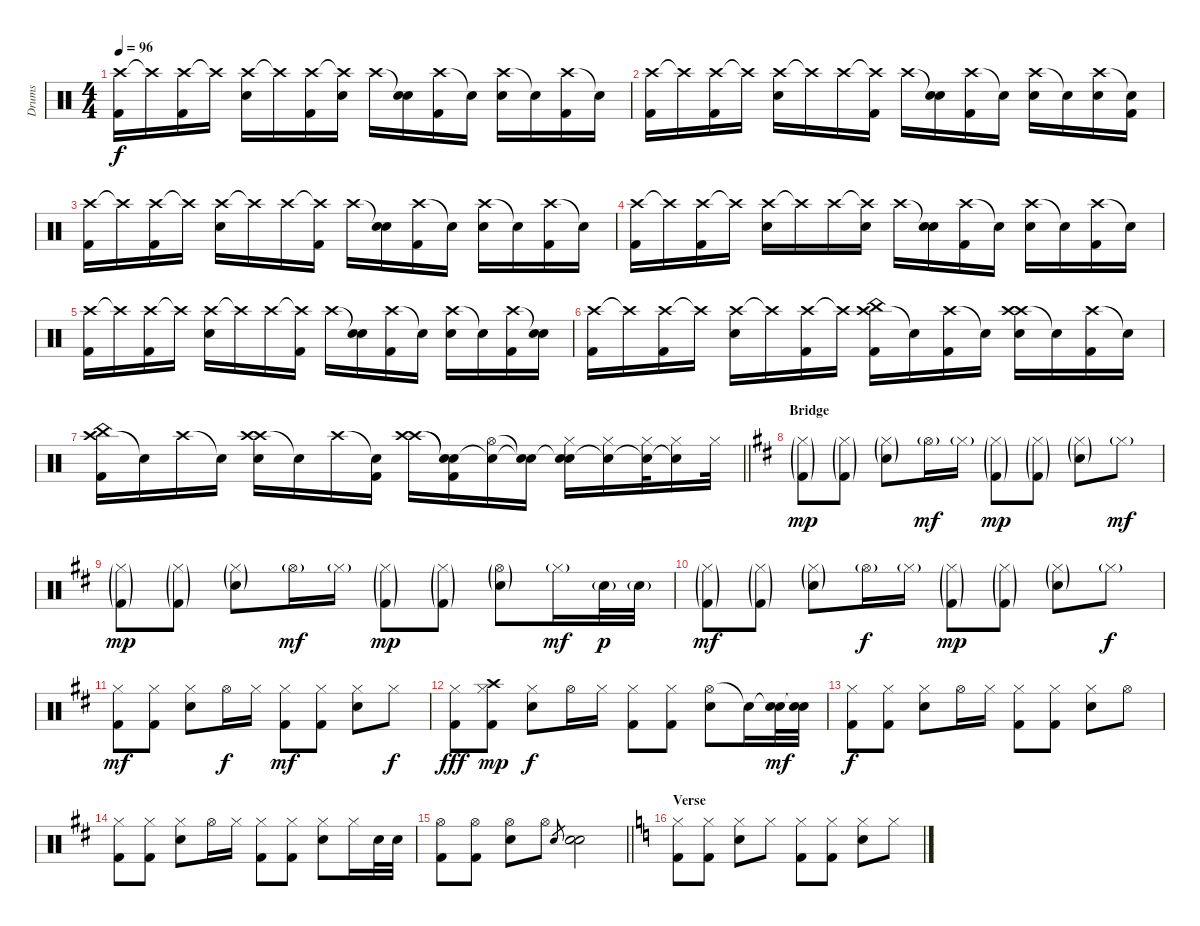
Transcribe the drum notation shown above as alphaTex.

\track ("Drums" "Drums") {instrument percussion}
\staff {score}
\articulation defaults
\ts (4 4)
\tempo 96
\clef neutral
\ks aminor
("Crash high (hit)" "Kick (hit) 2").16{dy f} "Crash high (hit)"{t}.16 ("Crash high (hit)" "Kick (hit) 2").16 "Crash high (hit)"{t}.16 ("Crash high (hit)" "Snare (hit) 2").16 "Crash high (hit)"{t}.16 ("Crash high (hit)" "Kick (hit) 2").16 ("Crash high (hit)"{t} "Snare (hit) 2").16 "Crash high (hit)".16 ("Snare (hit)"{t} "Snare (hit) 2").16 ("Crash high (hit)" "Kick (hit) 2").16 "Snare (hit)"{t}.16 ("Crash high (hit)" "Snare (hit) 2").16 "Snare (hit)"{t}.16 ("Crash high (hit)" "Kick (hit) 2").16 "Snare (hit)"{t}.16 |
("Crash high (hit)" "Kick (hit) 2").16 "Crash high (hit)"{t}.16 ("Crash high (hit)" "Kick (hit) 2").16 "Crash high (hit)"{t}.16 ("Crash high (hit)" "Snare (hit) 2").16 "Crash high (hit)"{t}.16 "Crash high (hit)".16 ("Crash high (hit)"{t} "Kick (hit) 2").16 "Crash high (hit)".16 ("Snare (hit)"{t} "Snare (hit) 2").16 ("Crash high (hit)" "Kick (hit) 2").16 "Snare (hit)"{t}.16 ("Crash high (hit)" "Snare (hit) 2").16 "Snare (hit)"{t}.16 ("Crash high (hit)" "Snare (hit) 2").16 ("Snare (hit)"{t} "Kick (hit) 2").16 |
("Crash high (hit)" "Kick (hit) 2").16 "Crash high (hit)"{t}.16 ("Crash high (hit)" "Kick (hit) 2").16 "Crash high (hit)"{t}.16 ("Crash high (hit)" "Snare (hit) 2").16 "Crash high (hit)"{t}.16 "Crash high (hit)".16 ("Crash high (hit)"{t} "Kick (hit) 2").16 "Crash high (hit)".16 ("Snare (hit)"{t} "Snare (hit) 2").16 ("Crash high (hit)" "Kick (hit) 2").16 "Snare (hit)"{t}.16 ("Crash high (hit)" "Snare (hit) 2").16 "Snare (hit)"{t}.16 ("Crash high (hit)" "Kick (hit) 2").16 "Snare (hit)"{t}.16 |
("Crash high (hit)" "Kick (hit) 2").16 "Crash high (hit)"{t}.16 ("Crash high (hit)" "Kick (hit) 2").16 "Crash high (hit)"{t}.16 ("Crash high (hit)" "Snare (hit) 2").16 "Crash high (hit)"{t}.16 "Crash high (hit)".16 ("Crash high (hit)"{t} "Snare (hit) 2").16 "Crash high (hit)".16 ("Snare (hit)"{t} "Snare (hit) 2").16 ("Crash high (hit)" "Kick (hit) 2").16 "Snare (hit)"{t}.16 ("Crash high (hit)" "Snare (hit) 2").16 "Snare (hit)"{t}.16 ("Crash high (hit)" "Kick (hit) 2").16 "Snare (hit)"{t}.16 |
("Crash high (hit)" "Kick (hit) 2").16 "Crash high (hit)"{t}.16 ("Crash high (hit)" "Kick (hit) 2").16 "Crash high (hit)"{t}.16 ("Crash high (hit)" "Snare (hit) 2").16 "Crash high (hit)"{t}.16 "Crash high (hit)".16 ("Crash high (hit)"{t} "Kick (hit) 2").16 "Crash high (hit)".16 ("Snare (hit)"{t} "Snare (hit) 2").16 ("Crash high (hit)" "Kick (hit) 2").16 "Snare (hit)"{t}.16 ("Crash high (hit)" "Snare (hit) 2").16 "Snare (hit)"{t}.16 ("Crash high (hit)" "Kick (hit) 2").16 ("Snare (hit)"{t} "Snare (hit) 2").16 |
("Crash high (hit)" "Kick (hit) 2").16 "Crash high (hit)"{t}.16 ("Crash high (hit)" "Kick (hit) 2").16 "Crash high (hit)"{t}.16 ("Crash high (hit)" "Snare (hit) 2").16 "Crash high (hit)"{t}.16 ("Crash high (hit)" "Kick (hit) 2").16 "Crash high (hit)"{t}.16 ("Crash high (hit)" "China (hit)" "Kick (hit) 2").16 "Snare (hit)"{t}.16 ("Crash high (hit)" "Kick (hit) 2").16 "Snare (hit)"{t}.16 ("Crash high (hit)" "Crash high (hit)" "Snare (hit) 2").16 "Snare (hit)"{t}.16 ("Crash high (hit)" "Kick (hit) 2").16 "Snare (hit)"{t}.16 |
\barLineRight lightlight
("Crash high (hit)" "China (hit)" "Kick (hit) 2").16 "Snare (hit)"{t}.16 "Crash high (hit)".16 "Snare (hit)"{t}.16 ("Crash high (hit)" "Crash high (hit)" "Snare (hit) 2").16 "Snare (hit)"{t}.16 "Crash high (hit)".16 ("Snare (hit)"{t} "Kick (hit) 2").16 ("Crash high (hit)" "Crash high (hit)").16 ("Snare (hit)"{t} "Snare (hit)"{t} "Kick (hit) 2").16 ("Hi-Hat (open)" "Snare (hit)"{t}).16 ("Snare (hit)"{t} "Snare (hit)"{t}).16 ("Hi-Hat (closed)" "Snare (hit)"{t} "Snare (hit) 2").16 ("Hi-Hat (closed)" "Snare (hit)"{t}).16 ("Hi-Hat (closed)" "Snare (hit)"{t}).32 ("Hi-Hat (closed)" "Snare (hit)"{t}).16 "Hi-Hat (closed)".32 |
\section ("" "Bridge")
\ks bminor
("Hi-Hat (closed)"{g} "Kick (hit) 2"{g}).8{dy mp} ("Hi-Hat (closed)"{g} "Kick (hit) 2"{g}).8 ("Hi-Hat (closed)"{g} "Snare (hit) 2"{g}).8 "Hi-Hat (open)"{g}.16{dy mf} "Hi-Hat (closed)"{g}.16 ("Hi-Hat (closed)"{g} "Kick (hit) 2"{g}).8{dy mp} ("Hi-Hat (closed)"{g} "Kick (hit) 2"{g}).8 ("Hi-Hat (closed)"{g} "Snare (hit) 2"{g}).8 "Hi-Hat (closed)"{g}.8{dy mf} |
("Hi-Hat (closed)"{g} "Kick (hit) 2"{g}).8{dy mp} ("Hi-Hat (closed)"{g} "Kick (hit) 2"{g}).8 ("Hi-Hat (closed)"{g} "Snare (hit) 2"{g}).8 "Hi-Hat (open)"{g}.16{dy mf} "Hi-Hat (closed)"{g}.16 ("Hi-Hat (closed)"{g} "Kick (hit) 2"{g}).8{dy mp} ("Hi-Hat (closed)"{g} "Kick (hit) 2"{g}).8 ("Hi-Hat (open)"{g} "Snare (hit) 2"{g}).8 "Hi-Hat (closed)"{g}.16{dy mf} "Snare (hit) 2"{g}.32{dy p} "Snare (hit) 2"{g}.32 |
("Hi-Hat (closed)"{g} "Kick (hit) 2"{g}).8{dy mf} ("Hi-Hat (closed)"{g} "Kick (hit) 2"{g}).8 ("Hi-Hat (closed)"{g} "Snare (hit) 2"{g}).8 "Hi-Hat (open)"{g}.16{dy f} "Hi-Hat (closed)"{g}.16 ("Hi-Hat (closed)"{g} "Kick (hit) 2"{g}).8{dy mp} ("Hi-Hat (closed)"{g} "Kick (hit) 2"{g}).8 ("Hi-Hat (closed)"{g} "Snare (hit) 2"{g}).8 "Hi-Hat (closed)"{g}.8{dy f} |
("Hi-Hat (closed)" "Kick (hit) 2").8{dy mf} ("Hi-Hat (closed)" "Kick (hit) 2").8 ("Hi-Hat (closed)" "Snare (hit) 2").8 "Hi-Hat (open)".16{dy f} "Hi-Hat (closed)".16 ("Hi-Hat (closed)" "Kick (hit) 2").8{dy mf} ("Hi-Hat (closed)" "Kick (hit) 2").8 ("Hi-Hat (closed)" "Snare (hit) 2").8 "Hi-Hat (closed)".8{dy f} |
("Hi-Hat (closed)" "Kick (hit) 2").8{dy fff} ("Hi-Hat (closed)" "Crash high (hit)" "Kick (hit) 2").8{dy mp} ("Hi-Hat (closed)" "Snare (hit) 2").8{dy f} "Hi-Hat (open)".16 "Hi-Hat (closed)".16 ("Hi-Hat (closed)" "Kick (hit) 2").8 ("Hi-Hat (closed)" "Kick (hit) 2").8 ("Hi-Hat (open)" "Snare (hit) 2").8 "Snare (hit)"{t}.16 ("Snare (hit)"{t} "Snare (hit) 2").32{dy mf} ("Snare (hit)"{t} "Snare (hit) 2").32 |
("Hi-Hat (closed)" "Kick (hit) 2").8{dy f} ("Hi-Hat (closed)" "Kick (hit) 2").8 ("Hi-Hat (closed)" "Snare (hit) 2").8 "Hi-Hat (open)".16 "Hi-Hat (closed)".16 ("Hi-Hat (closed)" "Kick (hit) 2").8 ("Hi-Hat (closed)" "Kick (hit) 2").8 ("Hi-Hat (closed)" "Snare (hit) 2").8 "Hi-Hat (open)".8 |
("Hi-Hat (closed)" "Kick (hit) 2").8 ("Hi-Hat (closed)" "Kick (hit) 2").8 ("Hi-Hat (closed)" "Snare (hit) 2").8 "Hi-Hat (open)".16 "Hi-Hat (closed)".16 ("Hi-Hat (closed)" "Kick (hit) 2").8 ("Hi-Hat (closed)" "Kick (hit) 2").8 ("Hi-Hat (closed)" "Snare (hit) 2").8 "Hi-Hat (closed)".16 "Snare (hit) 2".32 "Snare (hit) 2".32 |
\barLineRight lightlight
("Hi-Hat (open)" "Kick (hit) 2").8 ("Hi-Hat (open)" "Kick (hit) 2").8 ("Hi-Hat (open)" "Snare (hit) 2").8 "Hi-Hat (open)".8 "Snare (hit) 2".8{gr} ("Snare (hit) 2" "Snare (hit) 2").2 |
\section ("" "Verse")
\ks aminor
("Hi-Hat (closed)" "Kick (hit) 2").8 ("Hi-Hat (closed)" "Kick (hit) 2").8 ("Hi-Hat (closed)" "Snare (hit) 2").8 "Hi-Hat (closed)".8 ("Hi-Hat (closed)" "Kick (hit) 2").8 ("Hi-Hat (closed)" "Kick (hit) 2").8 ("Hi-Hat (closed)" "Snare (hit) 2").8 "Hi-Hat (closed)".8
